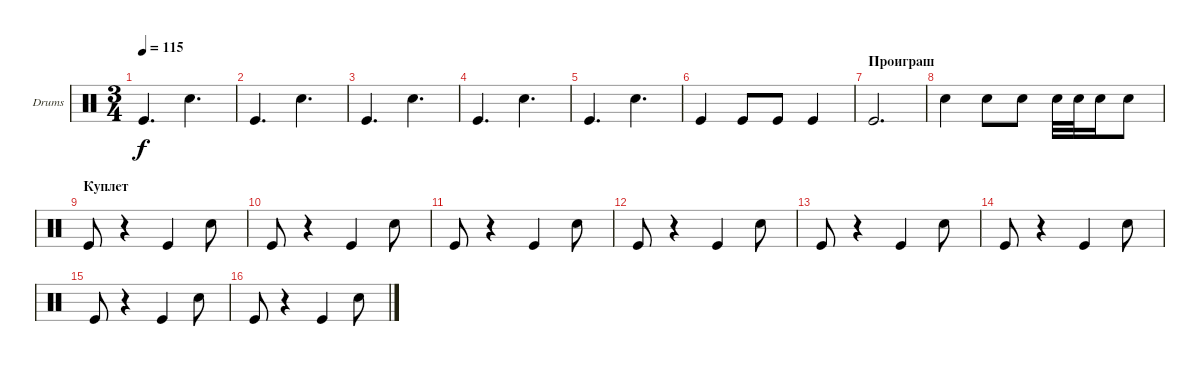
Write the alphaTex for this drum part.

\defaultSystemsLayout 4
\bracketExtendMode groupsimilarinstruments
\firstSystemTrackNameOrientation horizontal
\otherSystemsTrackNameOrientation horizontal
\track ("Е. Кулаков" "Drums") {instrument percussion}
\staff {score}
\articulation defaults
\ts (3 4)
\tempo 115
\clef neutral
\ks c "Kick (hit)".4{d dy f} "Snare (hit) 2".4{d}
|
"Kick (hit)".4{d} "Snare (hit) 2".4{d} |
"Kick (hit)".4{d} "Snare (hit) 2".4{d} |
"Kick (hit)".4{d} "Snare (hit) 2".4{d} |
"Kick (hit)".4{d} "Snare (hit) 2".4{d} |
"Kick (hit)".4 "Kick (hit)".8 "Kick (hit)".8 "Kick (hit)".4 |
\section ("" "Проиграш")
"Kick (hit)".2{d} |
"Snare (hit) 2".4 "Snare (hit) 2".8 "Snare (hit) 2".8 "Snare (hit) 2".32 "Snare (hit) 2".32 "Snare (hit) 2".16 "Snare (hit) 2".8 |
\section ("" "Куплет")
"Kick (hit)".8 r.4 "Kick (hit)".4 "Snare (hit) 2".8 |
"Kick (hit)".8 r.4 "Kick (hit)".4 "Snare (hit) 2".8 |
"Kick (hit)".8 r.4 "Kick (hit)".4 "Snare (hit) 2".8 |
"Kick (hit)".8 r.4 "Kick (hit)".4 "Snare (hit) 2".8 |
"Kick (hit)".8 r.4 "Kick (hit)".4 "Snare (hit) 2".8 |
"Kick (hit)".8 r.4 "Kick (hit)".4 "Snare (hit) 2".8 |
"Kick (hit)".8 r.4 "Kick (hit)".4 "Snare (hit) 2".8 |
"Kick (hit)".8 r.4 "Kick (hit)".4 "Snare (hit) 2".8
